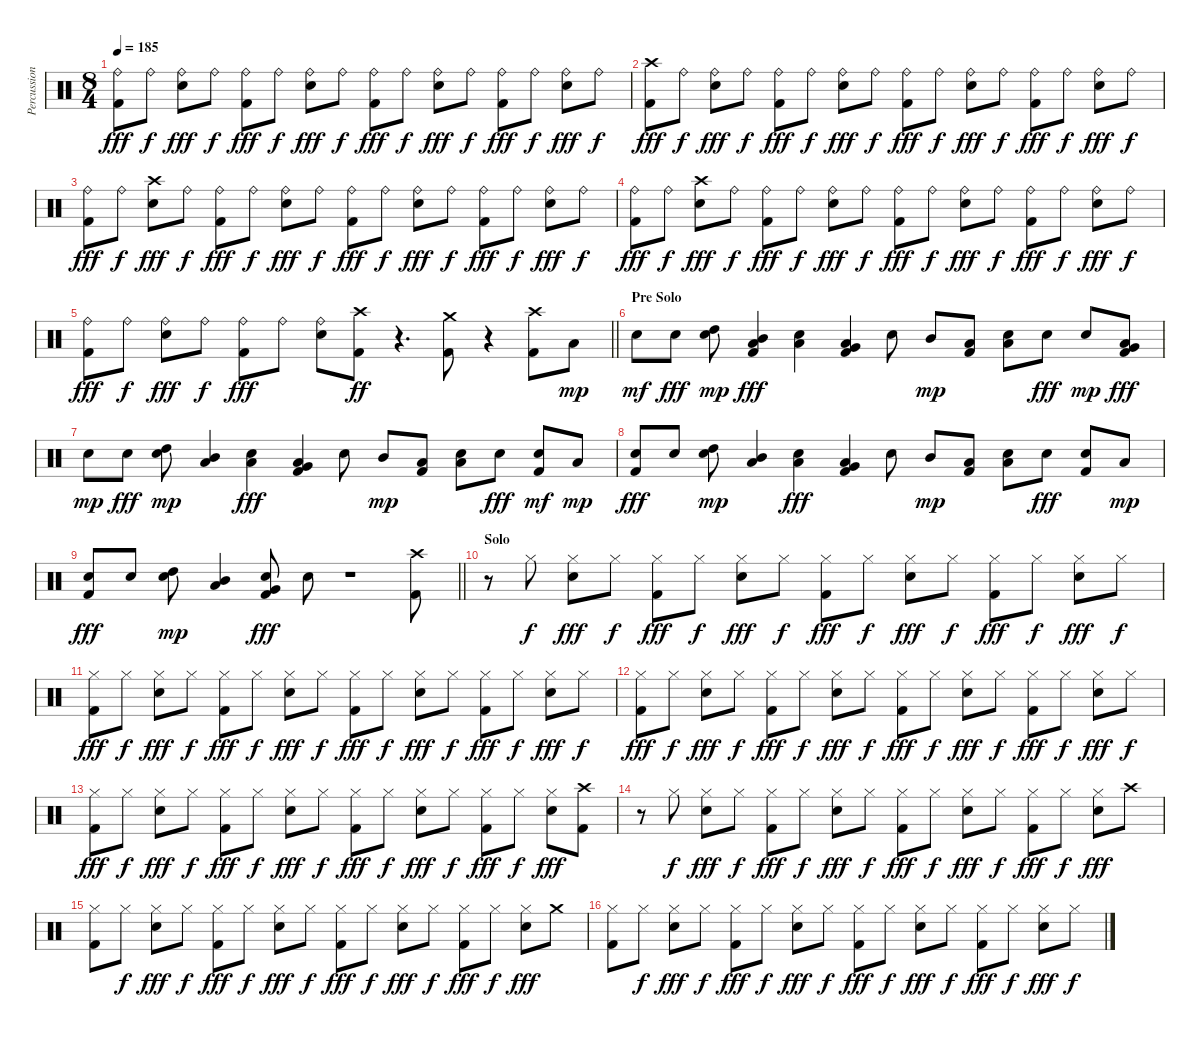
\track ("Percussion" "Percussion") {instrument percussion}
\staff {score}
\articulation defaults
\ts (8 4)
\tempo 185
\clef neutral
\ks c
("Ride (bell)" "Kick (hit) 2").8{dy fff} "Ride (bell)".8{dy f} ("Ride (bell)" "Electric Snare (hit)").8{dy fff} "Ride (bell)".8{dy f} ("Ride (bell)" "Kick (hit) 2").8{dy fff} "Ride (bell)".8{dy f} ("Ride (bell)" "Electric Snare (hit)").8{dy fff} "Ride (bell)".8{dy f} ("Ride (bell)" "Kick (hit) 2").8{dy fff} "Ride (bell)".8{dy f} ("Ride (bell)" "Electric Snare (hit)").8{dy fff} "Ride (bell)".8{dy f} ("Ride (bell)" "Kick (hit) 2").8{dy fff} "Ride (bell)".8{dy f} ("Ride (bell)" "Electric Snare (hit)").8{dy fff} "Ride (bell)".8{dy f} |
("Crash high (hit)" "Kick (hit) 2").8{dy fff} "Ride (bell)".8{dy f} ("Ride (bell)" "Electric Snare (hit)").8{dy fff} "Ride (bell)".8{dy f} ("Ride (bell)" "Kick (hit) 2").8{dy fff} "Ride (bell)".8{dy f} ("Ride (bell)" "Electric Snare (hit)").8{dy fff} "Ride (bell)".8{dy f} ("Ride (bell)" "Kick (hit) 2").8{dy fff} "Ride (bell)".8{dy f} ("Ride (bell)" "Electric Snare (hit)").8{dy fff} "Ride (bell)".8{dy f} ("Ride (bell)" "Kick (hit) 2").8{dy fff} "Ride (bell)".8{dy f} ("Ride (bell)" "Electric Snare (hit)").8{dy fff} "Ride (bell)".8{dy f} |
("Ride (bell)" "Kick (hit) 2").8{dy fff} "Ride (bell)".8{dy f} ("Crash high (hit)" "Electric Snare (hit)").8{dy fff} "Ride (bell)".8{dy f} ("Ride (bell)" "Kick (hit) 2").8{dy fff} "Ride (bell)".8{dy f} ("Ride (bell)" "Electric Snare (hit)").8{dy fff} "Ride (bell)".8{dy f} ("Ride (bell)" "Kick (hit) 2").8{dy fff} "Ride (bell)".8{dy f} ("Ride (bell)" "Electric Snare (hit)").8{dy fff} "Ride (bell)".8{dy f} ("Ride (bell)" "Kick (hit) 2").8{dy fff} "Ride (bell)".8{dy f} ("Ride (bell)" "Electric Snare (hit)").8{dy fff} "Ride (bell)".8{dy f} |
("Ride (bell)" "Kick (hit) 2").8{dy fff} "Ride (bell)".8{dy f} ("Crash high (hit)" "Electric Snare (hit)").8{dy fff} "Ride (bell)".8{dy f} ("Ride (bell)" "Kick (hit) 2").8{dy fff} "Ride (bell)".8{dy f} ("Ride (bell)" "Electric Snare (hit)").8{dy fff} "Ride (bell)".8{dy f} ("Ride (bell)" "Kick (hit) 2").8{dy fff} "Ride (bell)".8{dy f} ("Ride (bell)" "Electric Snare (hit)").8{dy fff} "Ride (bell)".8{dy f} ("Ride (bell)" "Kick (hit) 2").8{dy fff} "Ride (bell)".8{dy f} ("Ride (bell)" "Electric Snare (hit)").8{dy fff} "Ride (bell)".8{dy f} |
\barLineRight lightlight
("Ride (bell)" "Kick (hit) 2").8{dy fff} "Ride (bell)".8{dy f} ("Ride (bell)" "Electric Snare (hit)").8{dy fff} "Ride (bell)".8{dy f} ("Ride (bell)" "Kick (hit) 2").8{dy fff} "Ride (bell)".8 ("Ride (bell)" "Electric Snare (hit)").8 ("Crash high (hit)" "Kick (hit) 2").8{dy ff} r.4{d} ("Crash medium (hit)" "Kick (hit) 2").8 r.4 ("Crash high (hit)" "Kick (hit) 2").8 "Low Floor Tom (hit)".8{dy mp} |
\section ("" "Pre Solo")
"Electric Snare (hit)".8{dy mf} "Electric Snare (hit)".8{dy fff} ("High Tom (hit)" "Electric Snare (hit)").8{dy mp} ("Mid Tom (hit)" "Low Tom (hit)" "Kick (hit) 2").4{dy fff} ("Low Tom (hit)" "Electric Snare (hit)").4 ("Very Low Tom (hit)" "Low Floor Tom (hit)" "Kick (hit) 2").4 "Electric Snare (hit)".8 "Mid Tom (hit)".8{dy mp} ("Low Floor Tom (hit)" "Kick (hit) 2").8 ("Low Tom (hit)" "Electric Snare (hit)").8 "Electric Snare (hit)".8{dy fff} "Electric Snare (hit)".8{dy mp} ("Very Low Tom (hit)" "Low Floor Tom (hit)" "Kick (hit) 2").8{dy fff} |
"Electric Snare (hit)".8{dy mp} "Electric Snare (hit)".8{dy fff} ("High Tom (hit)" "Electric Snare (hit)").8{dy mp} ("Mid Tom (hit)" "Low Tom (hit)").4 ("Low Tom (hit)" "Electric Snare (hit)").4{dy fff} ("Very Low Tom (hit)" "Low Floor Tom (hit)" "Kick (hit) 2").4 "Electric Snare (hit)".8 "Mid Tom (hit)".8{dy mp} ("Low Floor Tom (hit)" "Kick (hit) 2").8 ("Low Tom (hit)" "Electric Snare (hit)").8 "Electric Snare (hit)".8{dy fff} ("Electric Snare (hit)" "Kick (hit) 2").8{dy mf} "Low Floor Tom (hit)".8{dy mp} |
("Electric Snare (hit)" "Kick (hit) 2").8{dy fff} "Electric Snare (hit)".8 ("High Tom (hit)" "Electric Snare (hit)").8{dy mp} ("Mid Tom (hit)" "Low Tom (hit)").4 ("Low Tom (hit)" "Electric Snare (hit)").4{dy fff} ("Very Low Tom (hit)" "Low Floor Tom (hit)" "Kick (hit) 2").4 "Electric Snare (hit)".8 "Mid Tom (hit)".8{dy mp} ("Low Floor Tom (hit)" "Kick (hit) 2").8 ("Low Tom (hit)" "Electric Snare (hit)").8 "Electric Snare (hit)".8{dy fff} ("Electric Snare (hit)" "Kick (hit) 2").8 "Low Floor Tom (hit)".8{dy mp} |
\barLineRight lightlight
("Electric Snare (hit)" "Kick (hit) 2").8{dy fff} "Electric Snare (hit)".8 ("High Tom (hit)" "Electric Snare (hit)").8{dy mp} ("Mid Tom (hit)" "Low Tom (hit)").4 ("Very Low Tom (hit)" "Electric Snare (hit)" "Kick (hit) 2").8{dy fff} "Electric Snare (hit)".8 r.1 ("Crash high (hit)" "Kick (hit) 2").8 |
\section ("" "Solo")
r.8 "Hi-Hat (closed)".8{dy f} ("Hi-Hat (closed)" "Electric Snare (hit)").8{dy fff} "Hi-Hat (closed)".8{dy f} ("Hi-Hat (closed)" "Kick (hit) 2").8{dy fff} "Hi-Hat (closed)".8{dy f} ("Hi-Hat (closed)" "Electric Snare (hit)").8{dy fff} "Hi-Hat (closed)".8{dy f} ("Hi-Hat (closed)" "Kick (hit) 2").8{dy fff} "Hi-Hat (closed)".8{dy f} ("Hi-Hat (closed)" "Electric Snare (hit)").8{dy fff} "Hi-Hat (closed)".8{dy f} ("Hi-Hat (closed)" "Kick (hit) 2").8{dy fff} "Hi-Hat (closed)".8{dy f} ("Hi-Hat (closed)" "Electric Snare (hit)").8{dy fff} "Hi-Hat (closed)".8{dy f} |
("Hi-Hat (closed)" "Kick (hit) 2").8{dy fff} "Hi-Hat (closed)".8{dy f} ("Hi-Hat (closed)" "Electric Snare (hit)").8{dy fff} "Hi-Hat (closed)".8{dy f} ("Hi-Hat (closed)" "Kick (hit) 2").8{dy fff} "Hi-Hat (closed)".8{dy f} ("Hi-Hat (closed)" "Electric Snare (hit)").8{dy fff} "Hi-Hat (closed)".8{dy f} ("Hi-Hat (closed)" "Kick (hit) 2").8{dy fff} "Hi-Hat (closed)".8{dy f} ("Hi-Hat (closed)" "Electric Snare (hit)").8{dy fff} "Hi-Hat (closed)".8{dy f} ("Hi-Hat (closed)" "Kick (hit) 2").8{dy fff} "Hi-Hat (closed)".8{dy f} ("Hi-Hat (closed)" "Electric Snare (hit)").8{dy fff} "Hi-Hat (closed)".8{dy f} |
("Hi-Hat (closed)" "Kick (hit) 2").8{dy fff} "Hi-Hat (closed)".8{dy f} ("Hi-Hat (closed)" "Electric Snare (hit)").8{dy fff} "Hi-Hat (closed)".8{dy f} ("Hi-Hat (closed)" "Kick (hit) 2").8{dy fff} "Hi-Hat (closed)".8{dy f} ("Hi-Hat (closed)" "Electric Snare (hit)").8{dy fff} "Hi-Hat (closed)".8{dy f} ("Hi-Hat (closed)" "Kick (hit) 2").8{dy fff} "Hi-Hat (closed)".8{dy f} ("Hi-Hat (closed)" "Electric Snare (hit)").8{dy fff} "Hi-Hat (closed)".8{dy f} ("Hi-Hat (closed)" "Kick (hit) 2").8{dy fff} "Hi-Hat (closed)".8{dy f} ("Hi-Hat (closed)" "Electric Snare (hit)").8{dy fff} "Hi-Hat (closed)".8{dy f} |
("Hi-Hat (closed)" "Kick (hit) 2").8{dy fff} "Hi-Hat (closed)".8{dy f} ("Hi-Hat (closed)" "Electric Snare (hit)").8{dy fff} "Hi-Hat (closed)".8{dy f} ("Hi-Hat (closed)" "Kick (hit) 2").8{dy fff} "Hi-Hat (closed)".8{dy f} ("Hi-Hat (closed)" "Electric Snare (hit)").8{dy fff} "Hi-Hat (closed)".8{dy f} ("Hi-Hat (closed)" "Kick (hit) 2").8{dy fff} "Hi-Hat (closed)".8{dy f} ("Hi-Hat (closed)" "Electric Snare (hit)").8{dy fff} "Hi-Hat (closed)".8{dy f} ("Hi-Hat (closed)" "Kick (hit) 2").8{dy fff} "Hi-Hat (closed)".8{dy f} ("Hi-Hat (closed)" "Electric Snare (hit)").8{dy fff} ("Crash high (hit)" "Kick (hit) 2").8 |
r.8 "Hi-Hat (closed)".8{dy f} ("Hi-Hat (closed)" "Electric Snare (hit)").8{dy fff} "Hi-Hat (closed)".8{dy f} ("Hi-Hat (closed)" "Kick (hit) 2").8{dy fff} "Hi-Hat (closed)".8{dy f} ("Hi-Hat (closed)" "Electric Snare (hit)").8{dy fff} "Hi-Hat (closed)".8{dy f} ("Hi-Hat (closed)" "Kick (hit) 2").8{dy fff} "Hi-Hat (closed)".8{dy f} ("Hi-Hat (closed)" "Electric Snare (hit)").8{dy fff} "Hi-Hat (closed)".8{dy f} ("Hi-Hat (closed)" "Kick (hit) 2").8{dy fff} "Hi-Hat (closed)".8{dy f} ("Hi-Hat (closed)" "Electric Snare (hit)").8{dy fff} "Crash high (hit)".8 |
("Hi-Hat (closed)" "Kick (hit) 2").8 "Hi-Hat (closed)".8{dy f} ("Hi-Hat (closed)" "Electric Snare (hit)").8{dy fff} "Hi-Hat (closed)".8{dy f} ("Hi-Hat (closed)" "Kick (hit) 2").8{dy fff} "Hi-Hat (closed)".8{dy f} ("Hi-Hat (closed)" "Electric Snare (hit)").8{dy fff} "Hi-Hat (closed)".8{dy f} ("Hi-Hat (closed)" "Kick (hit) 2").8{dy fff} "Hi-Hat (closed)".8{dy f} ("Hi-Hat (closed)" "Electric Snare (hit)").8{dy fff} "Hi-Hat (closed)".8{dy f} ("Hi-Hat (closed)" "Kick (hit) 2").8{dy fff} "Hi-Hat (closed)".8{dy f} ("Hi-Hat (closed)" "Electric Snare (hit)").8{dy fff} "Crash medium (hit)".8 |
("Hi-Hat (closed)" "Kick (hit) 2").8 "Hi-Hat (closed)".8{dy f} ("Hi-Hat (closed)" "Electric Snare (hit)").8{dy fff} "Hi-Hat (closed)".8{dy f} ("Hi-Hat (closed)" "Kick (hit) 2").8{dy fff} "Hi-Hat (closed)".8{dy f} ("Hi-Hat (closed)" "Electric Snare (hit)").8{dy fff} "Hi-Hat (closed)".8{dy f} ("Hi-Hat (closed)" "Kick (hit) 2").8{dy fff} "Hi-Hat (closed)".8{dy f} ("Hi-Hat (closed)" "Electric Snare (hit)").8{dy fff} "Hi-Hat (closed)".8{dy f} ("Hi-Hat (closed)" "Kick (hit) 2").8{dy fff} "Hi-Hat (closed)".8{dy f} ("Hi-Hat (closed)" "Electric Snare (hit)").8{dy fff} "Hi-Hat (closed)".8{dy f}
